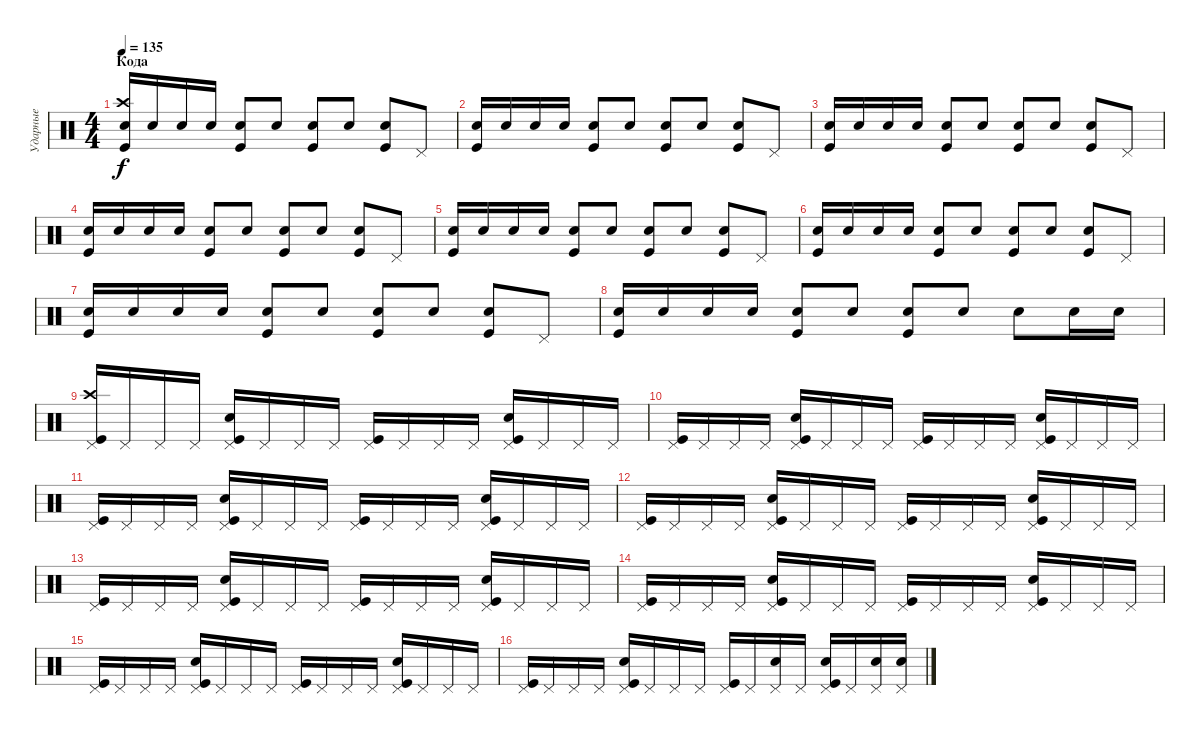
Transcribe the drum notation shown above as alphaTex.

\track ("Ударные" "Ударные") {instrument percussion}
\staff {score}
\articulation defaults
\ts (4 4)
\section ("" "Кода")
\tempo 135
\clef neutral
\ks c
("Kick (hit)" "Crash high (hit)" "Snare (hit) 2").16{dy f} "Snare (hit) 2".16 "Snare (hit) 2".16 "Snare (hit) 2".16 ("Kick (hit)" "Snare (hit) 2").8 "Snare (hit) 2".8 ("Kick (hit)" "Snare (hit) 2").8 "Snare (hit) 2".8 ("Kick (hit)" "Snare (hit) 2").8{bu 240} "Pedal Hi-Hat (hit)".8 |
("Kick (hit)" "Snare (hit) 2").16 "Snare (hit) 2".16 "Snare (hit) 2".16 "Snare (hit) 2".16 ("Kick (hit)" "Snare (hit) 2").8 "Snare (hit) 2".8 ("Kick (hit)" "Snare (hit) 2").8 "Snare (hit) 2".8 ("Kick (hit)" "Snare (hit) 2").8{bu 240} "Pedal Hi-Hat (hit)".8 |
("Kick (hit)" "Snare (hit) 2").16 "Snare (hit) 2".16 "Snare (hit) 2".16 "Snare (hit) 2".16 ("Kick (hit)" "Snare (hit) 2").8 "Snare (hit) 2".8 ("Kick (hit)" "Snare (hit) 2").8 "Snare (hit) 2".8 ("Kick (hit)" "Snare (hit) 2").8{bu 240} "Pedal Hi-Hat (hit)".8 |
("Kick (hit)" "Snare (hit) 2").16 "Snare (hit) 2".16 "Snare (hit) 2".16 "Snare (hit) 2".16 ("Kick (hit)" "Snare (hit) 2").8 "Snare (hit) 2".8 ("Kick (hit)" "Snare (hit) 2").8 "Snare (hit) 2".8 ("Kick (hit)" "Snare (hit) 2").8{bu 240} "Pedal Hi-Hat (hit)".8 |
("Kick (hit)" "Snare (hit) 2").16 "Snare (hit) 2".16 "Snare (hit) 2".16 "Snare (hit) 2".16 ("Kick (hit)" "Snare (hit) 2").8 "Snare (hit) 2".8 ("Kick (hit)" "Snare (hit) 2").8 "Snare (hit) 2".8 ("Kick (hit)" "Snare (hit) 2").8{bu 240} "Pedal Hi-Hat (hit)".8 |
("Kick (hit)" "Snare (hit) 2").16 "Snare (hit) 2".16 "Snare (hit) 2".16 "Snare (hit) 2".16 ("Kick (hit)" "Snare (hit) 2").8 "Snare (hit) 2".8 ("Kick (hit)" "Snare (hit) 2").8 "Snare (hit) 2".8 ("Kick (hit)" "Snare (hit) 2").8{bu 240} "Pedal Hi-Hat (hit)".8 |
("Kick (hit)" "Snare (hit) 2").16 "Snare (hit) 2".16 "Snare (hit) 2".16 "Snare (hit) 2".16 ("Kick (hit)" "Snare (hit) 2").8 "Snare (hit) 2".8 ("Kick (hit)" "Snare (hit) 2").8 "Snare (hit) 2".8 ("Kick (hit)" "Snare (hit) 2").8{bu 240} "Pedal Hi-Hat (hit)".8 |
("Kick (hit)" "Snare (hit) 2").16 "Snare (hit) 2".16 "Snare (hit) 2".16 "Snare (hit) 2".16 ("Kick (hit)" "Snare (hit) 2").8 "Snare (hit) 2".8 ("Kick (hit)" "Snare (hit) 2").8{bu 240} "Snare (hit) 2".8 "Snare (hit) 2".8 "Snare (hit) 2".16 "Snare (hit) 2".16 |
("Kick (hit)" "Pedal Hi-Hat (hit)" "Crash high (hit)").16 "Pedal Hi-Hat (hit)".16 "Pedal Hi-Hat (hit)".16 "Pedal Hi-Hat (hit)".16 ("Kick (hit)" "Pedal Hi-Hat (hit)" "Snare (hit) 2").16 "Pedal Hi-Hat (hit)".16 "Pedal Hi-Hat (hit)".16 "Pedal Hi-Hat (hit)".16 ("Kick (hit)" "Pedal Hi-Hat (hit)").16 "Pedal Hi-Hat (hit)".16 "Pedal Hi-Hat (hit)".16 "Pedal Hi-Hat (hit)".16 ("Kick (hit)" "Pedal Hi-Hat (hit)" "Snare (hit) 2").16 "Pedal Hi-Hat (hit)".16 "Pedal Hi-Hat (hit)".16 "Pedal Hi-Hat (hit)".16 |
("Kick (hit)" "Pedal Hi-Hat (hit)").16 "Pedal Hi-Hat (hit)".16 "Pedal Hi-Hat (hit)".16 "Pedal Hi-Hat (hit)".16 ("Kick (hit)" "Pedal Hi-Hat (hit)" "Snare (hit) 2").16 "Pedal Hi-Hat (hit)".16 "Pedal Hi-Hat (hit)".16 "Pedal Hi-Hat (hit)".16 ("Kick (hit)" "Pedal Hi-Hat (hit)").16 "Pedal Hi-Hat (hit)".16 "Pedal Hi-Hat (hit)".16 "Pedal Hi-Hat (hit)".16 ("Kick (hit)" "Pedal Hi-Hat (hit)" "Snare (hit) 2").16 "Pedal Hi-Hat (hit)".16 "Pedal Hi-Hat (hit)".16 "Pedal Hi-Hat (hit)".16 |
("Kick (hit)" "Pedal Hi-Hat (hit)").16 "Pedal Hi-Hat (hit)".16 "Pedal Hi-Hat (hit)".16 "Pedal Hi-Hat (hit)".16 ("Kick (hit)" "Pedal Hi-Hat (hit)" "Snare (hit) 2").16 "Pedal Hi-Hat (hit)".16 "Pedal Hi-Hat (hit)".16 "Pedal Hi-Hat (hit)".16 ("Kick (hit)" "Pedal Hi-Hat (hit)").16 "Pedal Hi-Hat (hit)".16 "Pedal Hi-Hat (hit)".16 "Pedal Hi-Hat (hit)".16 ("Kick (hit)" "Pedal Hi-Hat (hit)" "Snare (hit) 2").16 "Pedal Hi-Hat (hit)".16 "Pedal Hi-Hat (hit)".16 "Pedal Hi-Hat (hit)".16 |
("Kick (hit)" "Pedal Hi-Hat (hit)").16 "Pedal Hi-Hat (hit)".16 "Pedal Hi-Hat (hit)".16 "Pedal Hi-Hat (hit)".16 ("Kick (hit)" "Pedal Hi-Hat (hit)" "Snare (hit) 2").16 "Pedal Hi-Hat (hit)".16 "Pedal Hi-Hat (hit)".16 "Pedal Hi-Hat (hit)".16 ("Kick (hit)" "Pedal Hi-Hat (hit)").16 "Pedal Hi-Hat (hit)".16 "Pedal Hi-Hat (hit)".16 "Pedal Hi-Hat (hit)".16 ("Kick (hit)" "Pedal Hi-Hat (hit)" "Snare (hit) 2").16 "Pedal Hi-Hat (hit)".16 "Pedal Hi-Hat (hit)".16 "Pedal Hi-Hat (hit)".16 |
("Kick (hit)" "Pedal Hi-Hat (hit)").16 "Pedal Hi-Hat (hit)".16 "Pedal Hi-Hat (hit)".16 "Pedal Hi-Hat (hit)".16 ("Kick (hit)" "Pedal Hi-Hat (hit)" "Snare (hit) 2").16 "Pedal Hi-Hat (hit)".16 "Pedal Hi-Hat (hit)".16 "Pedal Hi-Hat (hit)".16 ("Kick (hit)" "Pedal Hi-Hat (hit)").16 "Pedal Hi-Hat (hit)".16 "Pedal Hi-Hat (hit)".16 "Pedal Hi-Hat (hit)".16 ("Kick (hit)" "Pedal Hi-Hat (hit)" "Snare (hit) 2").16 "Pedal Hi-Hat (hit)".16 "Pedal Hi-Hat (hit)".16 "Pedal Hi-Hat (hit)".16 |
("Kick (hit)" "Pedal Hi-Hat (hit)").16 "Pedal Hi-Hat (hit)".16 "Pedal Hi-Hat (hit)".16 "Pedal Hi-Hat (hit)".16 ("Kick (hit)" "Pedal Hi-Hat (hit)" "Snare (hit) 2").16 "Pedal Hi-Hat (hit)".16 "Pedal Hi-Hat (hit)".16 "Pedal Hi-Hat (hit)".16 ("Kick (hit)" "Pedal Hi-Hat (hit)").16 "Pedal Hi-Hat (hit)".16 "Pedal Hi-Hat (hit)".16 "Pedal Hi-Hat (hit)".16 ("Kick (hit)" "Pedal Hi-Hat (hit)" "Snare (hit) 2").16 "Pedal Hi-Hat (hit)".16 "Pedal Hi-Hat (hit)".16 "Pedal Hi-Hat (hit)".16 |
("Kick (hit)" "Pedal Hi-Hat (hit)").16 "Pedal Hi-Hat (hit)".16 "Pedal Hi-Hat (hit)".16 "Pedal Hi-Hat (hit)".16 ("Kick (hit)" "Pedal Hi-Hat (hit)" "Snare (hit) 2").16 "Pedal Hi-Hat (hit)".16 "Pedal Hi-Hat (hit)".16 "Pedal Hi-Hat (hit)".16 ("Kick (hit)" "Pedal Hi-Hat (hit)").16 "Pedal Hi-Hat (hit)".16 "Pedal Hi-Hat (hit)".16 "Pedal Hi-Hat (hit)".16 ("Kick (hit)" "Pedal Hi-Hat (hit)" "Snare (hit) 2").16 "Pedal Hi-Hat (hit)".16 "Pedal Hi-Hat (hit)".16 "Pedal Hi-Hat (hit)".16 |
("Kick (hit)" "Pedal Hi-Hat (hit)").16 "Pedal Hi-Hat (hit)".16 "Pedal Hi-Hat (hit)".16 "Pedal Hi-Hat (hit)".16 ("Kick (hit)" "Pedal Hi-Hat (hit)" "Snare (hit) 2").16 "Pedal Hi-Hat (hit)".16 "Pedal Hi-Hat (hit)".16 "Pedal Hi-Hat (hit)".16 ("Kick (hit)" "Pedal Hi-Hat (hit)").16 "Pedal Hi-Hat (hit)".16 ("Pedal Hi-Hat (hit)" "Snare (hit) 2").16 "Pedal Hi-Hat (hit)".16 ("Kick (hit)" "Pedal Hi-Hat (hit)" "Snare (hit) 2").16 "Pedal Hi-Hat (hit)".16 ("Pedal Hi-Hat (hit)" "Snare (hit) 2").16 ("Pedal Hi-Hat (hit)" "Snare (hit) 2").16
